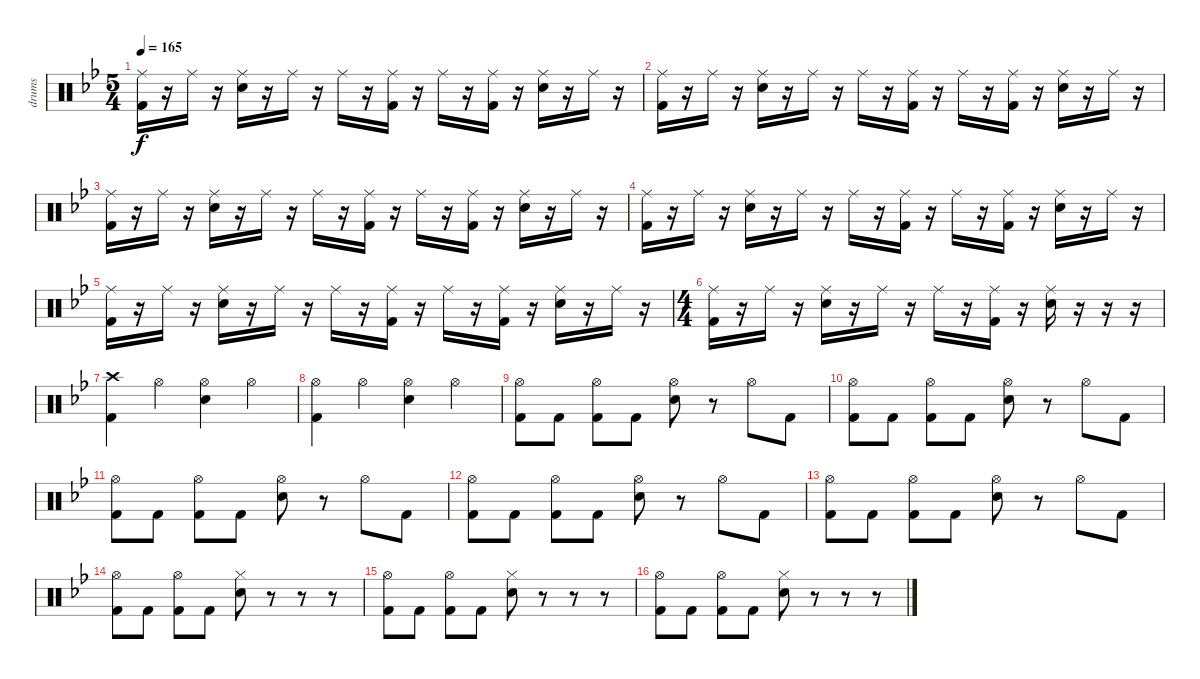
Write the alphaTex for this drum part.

\track ("drums" "drums") {instrument percussion}
\staff {score}
\articulation defaults
\ts (5 4)
\tempo 165
\clef neutral
\ks bb
("Ride (middle)" "Kick (hit) 2").16{dy f} r.16 "Ride (middle)".16 r.16 ("Ride (middle)" "Snare (hit) 2").16 r.16 "Ride (middle)".16 r.16 "Ride (middle)".16 r.16 ("Ride (middle)" "Kick (hit) 2").16 r.16 "Ride (middle)".16 r.16 ("Ride (middle)" "Kick (hit) 2").16 r.16 ("Ride (middle)" "Snare (hit) 2").16 r.16 "Ride (middle)".16 r.16 |
("Ride (middle)" "Kick (hit) 2").16 r.16 "Ride (middle)".16 r.16 ("Ride (middle)" "Snare (hit) 2").16 r.16 "Ride (middle)".16 r.16 "Ride (middle)".16 r.16 ("Ride (middle)" "Kick (hit) 2").16 r.16 "Ride (middle)".16 r.16 ("Ride (middle)" "Kick (hit) 2").16 r.16 ("Ride (middle)" "Snare (hit) 2").16 r.16 "Ride (middle)".16 r.16 |
("Ride (middle)" "Kick (hit) 2").16 r.16 "Ride (middle)".16 r.16 ("Ride (middle)" "Snare (hit) 2").16 r.16 "Ride (middle)".16 r.16 "Ride (middle)".16 r.16 ("Ride (middle)" "Kick (hit) 2").16 r.16 "Ride (middle)".16 r.16 ("Ride (middle)" "Kick (hit) 2").16 r.16 ("Ride (middle)" "Snare (hit) 2").16 r.16 "Ride (middle)".16 r.16 |
("Ride (middle)" "Kick (hit) 2").16 r.16 "Ride (middle)".16 r.16 ("Ride (middle)" "Snare (hit) 2").16 r.16 "Ride (middle)".16 r.16 "Ride (middle)".16 r.16 ("Ride (middle)" "Kick (hit) 2").16 r.16 "Ride (middle)".16 r.16 ("Ride (middle)" "Kick (hit) 2").16 r.16 ("Ride (middle)" "Snare (hit) 2").16 r.16 "Ride (middle)".16 r.16 |
("Ride (middle)" "Kick (hit) 2").16 r.16 "Ride (middle)".16 r.16 ("Ride (middle)" "Snare (hit) 2").16 r.16 "Ride (middle)".16 r.16 "Ride (middle)".16 r.16 ("Ride (middle)" "Kick (hit) 2").16 r.16 "Ride (middle)".16 r.16 ("Ride (middle)" "Kick (hit) 2").16 r.16 ("Ride (middle)" "Snare (hit) 2").16 r.16 "Ride (middle)".16 r.16 |
\ts (4 4)
("Ride (middle)" "Kick (hit) 2").16 r.16 "Ride (middle)".16 r.16 ("Ride (middle)" "Snare (hit) 2").16 r.16 "Ride (middle)".16 r.16 "Ride (middle)".16 r.16 ("Ride (middle)" "Kick (hit) 2").16 r.16 ("Ride (middle)" "Snare (hit) 2").16 r.16 r.16 r.16 |
("Crash high (hit)" "Kick (hit) 2").4 "Hi-Hat (open)".4 ("Hi-Hat (open)" "Snare (hit) 2").4 "Hi-Hat (open)".4 |
("Hi-Hat (open)" "Kick (hit) 2").4 "Hi-Hat (open)".4 ("Hi-Hat (open)" "Snare (hit) 2").4 "Hi-Hat (open)".4 |
("Hi-Hat (open)" "Kick (hit) 2").8 "Kick (hit) 2".8 ("Hi-Hat (open)" "Kick (hit) 2").8 "Kick (hit) 2".8 ("Hi-Hat (open)" "Snare (hit) 2").8 r.8 "Hi-Hat (open)".8 "Kick (hit) 2".8 |
("Hi-Hat (open)" "Kick (hit) 2").8 "Kick (hit) 2".8 ("Hi-Hat (open)" "Kick (hit) 2").8 "Kick (hit) 2".8 ("Hi-Hat (open)" "Snare (hit) 2").8 r.8 "Hi-Hat (open)".8 "Kick (hit) 2".8 |
("Hi-Hat (open)" "Kick (hit) 2").8 "Kick (hit) 2".8 ("Hi-Hat (open)" "Kick (hit) 2").8 "Kick (hit) 2".8 ("Hi-Hat (open)" "Snare (hit) 2").8 r.8 "Hi-Hat (open)".8 "Kick (hit) 2".8 |
("Hi-Hat (open)" "Kick (hit) 2").8 "Kick (hit) 2".8 ("Hi-Hat (open)" "Kick (hit) 2").8 "Kick (hit) 2".8 ("Hi-Hat (open)" "Snare (hit) 2").8 r.8 "Hi-Hat (open)".8 "Kick (hit) 2".8 |
("Hi-Hat (open)" "Kick (hit) 2").8 "Kick (hit) 2".8 ("Hi-Hat (open)" "Kick (hit) 2").8 "Kick (hit) 2".8 ("Hi-Hat (open)" "Snare (hit) 2").8 r.8 "Hi-Hat (open)".8 "Kick (hit) 2".8 |
("Hi-Hat (open)" "Kick (hit) 2").8 "Kick (hit) 2".8 ("Hi-Hat (open)" "Kick (hit) 2").8 "Kick (hit) 2".8 ("Hi-Hat (closed)" "Snare (hit) 2").8 r.8 r.8 r.8 |
("Hi-Hat (open)" "Kick (hit) 2").8 "Kick (hit) 2".8 ("Hi-Hat (open)" "Kick (hit) 2").8 "Kick (hit) 2".8 ("Hi-Hat (closed)" "Snare (hit) 2").8 r.8 r.8 r.8 |
("Hi-Hat (open)" "Kick (hit) 2").8 "Kick (hit) 2".8 ("Hi-Hat (open)" "Kick (hit) 2").8 "Kick (hit) 2".8 ("Hi-Hat (closed)" "Snare (hit) 2").8 r.8 r.8 r.8
